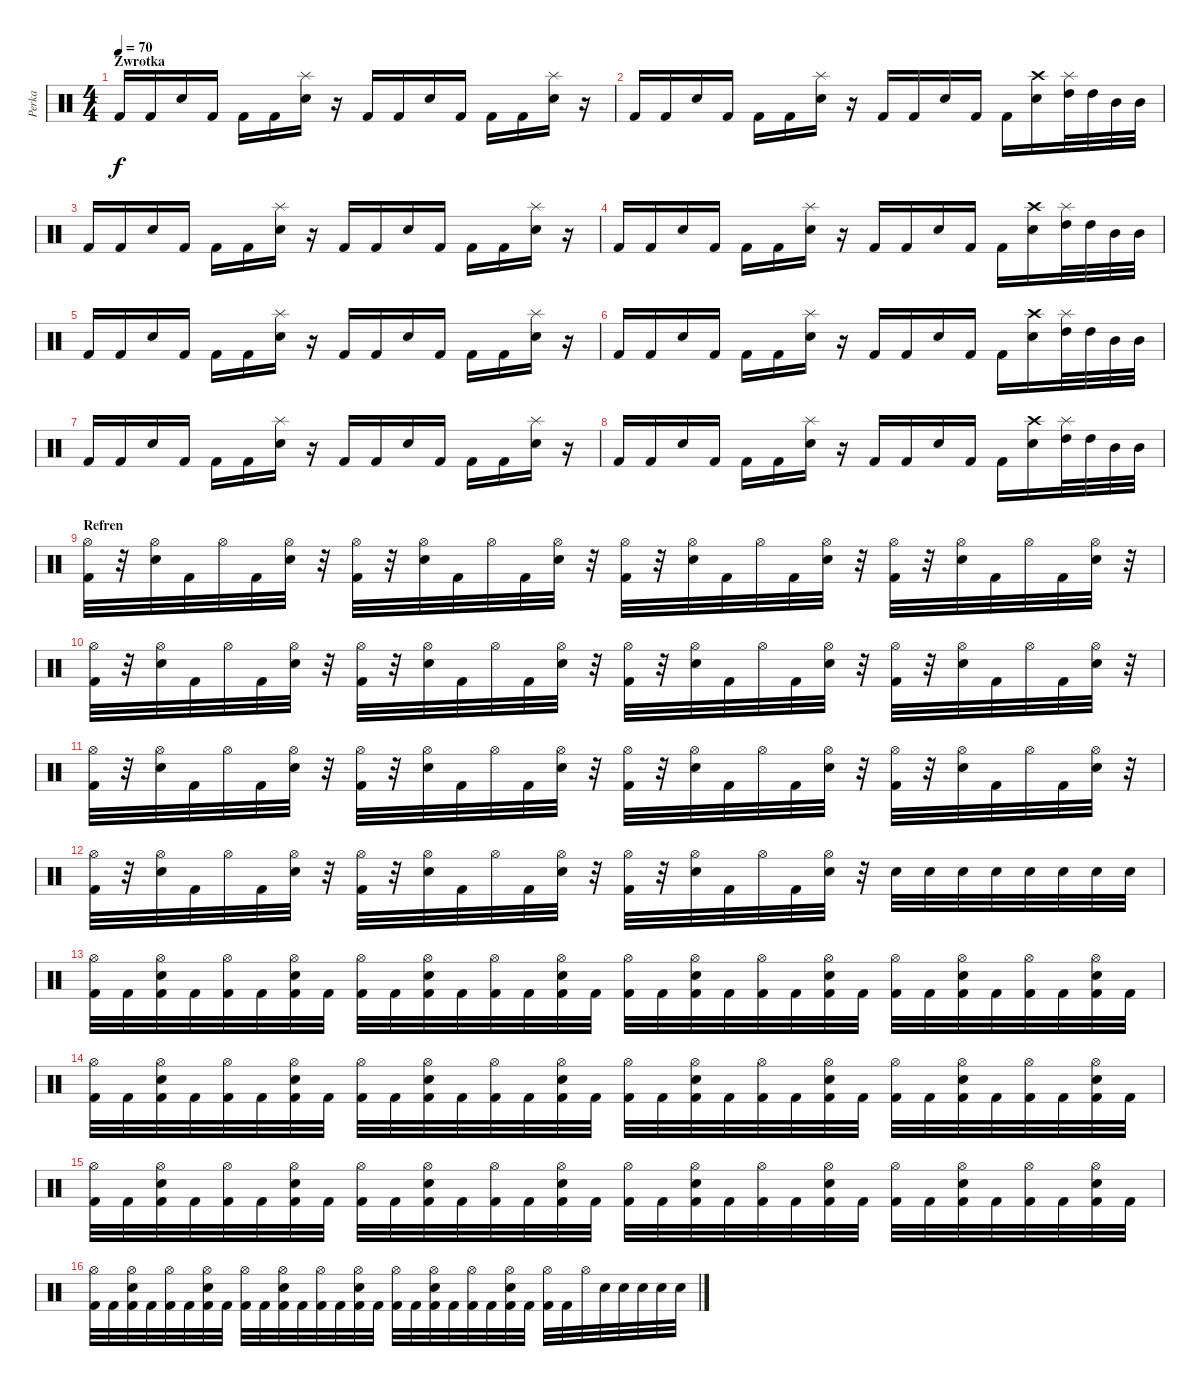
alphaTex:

\track ("Perka" "Perka") {instrument percussion}
\staff {score}
\articulation defaults
\ts (4 4)
\section ("" "Zwrotka")
\tempo 70
\clef neutral
\ks c "Kick (hit) 2".16{dy f} "Kick (hit) 2".16 "Electric Snare (hit)".16 "Kick (hit) 2".16 "Kick (hit) 2".16 "Kick (hit) 2".16
("Splash (hit)" "Electric Snare (hit)").16 r.16 "Kick (hit) 2".16 "Kick (hit) 2".16 "Electric Snare (hit)".16 "Kick (hit) 2".16 "Kick (hit) 2".16 "Kick (hit) 2".16 ("Splash (hit)" "Electric Snare (hit)").16 r.16 |
"Kick (hit) 2".16 "Kick (hit) 2".16 "Electric Snare (hit)".16 "Kick (hit) 2".16 "Kick (hit) 2".16 "Kick (hit) 2".16 ("Splash (hit)" "Electric Snare (hit)").16 r.16 "Kick (hit) 2".16 "Kick (hit) 2".16 "Electric Snare (hit)".16 "Kick (hit) 2".16 "Kick (hit) 2".16 ("Crash high (hit)" "Electric Snare (hit)").16 ("Splash (hit)" "High Tom (hit)").32 "High Tom (hit)".32 "Mid Tom (hit)".32 "Mid Tom (hit)".32 |
"Kick (hit) 2".16 "Kick (hit) 2".16 "Electric Snare (hit)".16 "Kick (hit) 2".16 "Kick (hit) 2".16 "Kick (hit) 2".16 ("Splash (hit)" "Electric Snare (hit)").16 r.16 "Kick (hit) 2".16 "Kick (hit) 2".16 "Electric Snare (hit)".16 "Kick (hit) 2".16 "Kick (hit) 2".16 "Kick (hit) 2".16 ("Splash (hit)" "Electric Snare (hit)").16 r.16 |
"Kick (hit) 2".16 "Kick (hit) 2".16 "Electric Snare (hit)".16 "Kick (hit) 2".16 "Kick (hit) 2".16 "Kick (hit) 2".16 ("Splash (hit)" "Electric Snare (hit)").16 r.16 "Kick (hit) 2".16 "Kick (hit) 2".16 "Electric Snare (hit)".16 "Kick (hit) 2".16 "Kick (hit) 2".16 ("Crash high (hit)" "Electric Snare (hit)").16 ("Splash (hit)" "High Tom (hit)").32 "High Tom (hit)".32 "Mid Tom (hit)".32 "Mid Tom (hit)".32 |
"Kick (hit) 2".16 "Kick (hit) 2".16 "Electric Snare (hit)".16 "Kick (hit) 2".16 "Kick (hit) 2".16 "Kick (hit) 2".16 ("Splash (hit)" "Electric Snare (hit)").16 r.16 "Kick (hit) 2".16 "Kick (hit) 2".16 "Electric Snare (hit)".16 "Kick (hit) 2".16 "Kick (hit) 2".16 "Kick (hit) 2".16 ("Splash (hit)" "Electric Snare (hit)").16 r.16 |
"Kick (hit) 2".16 "Kick (hit) 2".16 "Electric Snare (hit)".16 "Kick (hit) 2".16 "Kick (hit) 2".16 "Kick (hit) 2".16 ("Splash (hit)" "Electric Snare (hit)").16 r.16 "Kick (hit) 2".16 "Kick (hit) 2".16 "Electric Snare (hit)".16 "Kick (hit) 2".16 "Kick (hit) 2".16 ("Crash high (hit)" "Electric Snare (hit)").16 ("Splash (hit)" "High Tom (hit)").32 "High Tom (hit)".32 "Mid Tom (hit)".32 "Mid Tom (hit)".32 |
"Kick (hit) 2".16 "Kick (hit) 2".16 "Electric Snare (hit)".16 "Kick (hit) 2".16 "Kick (hit) 2".16 "Kick (hit) 2".16 ("Splash (hit)" "Electric Snare (hit)").16 r.16 "Kick (hit) 2".16 "Kick (hit) 2".16 "Electric Snare (hit)".16 "Kick (hit) 2".16 "Kick (hit) 2".16 "Kick (hit) 2".16 ("Splash (hit)" "Electric Snare (hit)").16 r.16 |
"Kick (hit) 2".16 "Kick (hit) 2".16 "Electric Snare (hit)".16 "Kick (hit) 2".16 "Kick (hit) 2".16 "Kick (hit) 2".16 ("Splash (hit)" "Electric Snare (hit)").16 r.16 "Kick (hit) 2".16 "Kick (hit) 2".16 "Electric Snare (hit)".16 "Kick (hit) 2".16 "Kick (hit) 2".16 ("Crash high (hit)" "Electric Snare (hit)").16 ("Splash (hit)" "High Tom (hit)").32 "High Tom (hit)".32 "Mid Tom (hit)".32 "Mid Tom (hit)".32 |
\section ("" "Refren")
("Hi-Hat (open)" "Kick (hit) 2").32 r.32 ("Hi-Hat (open)" "Electric Snare (hit)").32 "Kick (hit) 2".32 "Hi-Hat (open)".32 "Kick (hit) 2".32 ("Hi-Hat (open)" "Electric Snare (hit)").32 r.32 ("Hi-Hat (open)" "Kick (hit) 2").32 r.32 ("Hi-Hat (open)" "Electric Snare (hit)").32 "Kick (hit) 2".32 "Hi-Hat (open)".32 "Kick (hit) 2".32 ("Hi-Hat (open)" "Electric Snare (hit)").32 r.32 ("Hi-Hat (open)" "Kick (hit) 2").32 r.32 ("Hi-Hat (open)" "Electric Snare (hit)").32 "Kick (hit) 2".32 "Hi-Hat (open)".32 "Kick (hit) 2".32 ("Hi-Hat (open)" "Electric Snare (hit)").32 r.32 ("Hi-Hat (open)" "Kick (hit) 2").32 r.32 ("Hi-Hat (open)" "Electric Snare (hit)").32 "Kick (hit) 2".32 "Hi-Hat (open)".32 "Kick (hit) 2".32 ("Hi-Hat (open)" "Electric Snare (hit)").32 r.32 |
("Hi-Hat (open)" "Kick (hit) 2").32 r.32 ("Hi-Hat (open)" "Electric Snare (hit)").32 "Kick (hit) 2".32 "Hi-Hat (open)".32 "Kick (hit) 2".32 ("Hi-Hat (open)" "Electric Snare (hit)").32 r.32 ("Hi-Hat (open)" "Kick (hit) 2").32 r.32 ("Hi-Hat (open)" "Electric Snare (hit)").32 "Kick (hit) 2".32 "Hi-Hat (open)".32 "Kick (hit) 2".32 ("Hi-Hat (open)" "Electric Snare (hit)").32 r.32 ("Hi-Hat (open)" "Kick (hit) 2").32 r.32 ("Hi-Hat (open)" "Electric Snare (hit)").32 "Kick (hit) 2".32 "Hi-Hat (open)".32 "Kick (hit) 2".32 ("Hi-Hat (open)" "Electric Snare (hit)").32 r.32 ("Hi-Hat (open)" "Kick (hit) 2").32 r.32 ("Hi-Hat (open)" "Electric Snare (hit)").32 "Kick (hit) 2".32 "Hi-Hat (open)".32 "Kick (hit) 2".32 ("Hi-Hat (open)" "Electric Snare (hit)").32 r.32 |
("Hi-Hat (open)" "Kick (hit) 2").32 r.32 ("Hi-Hat (open)" "Electric Snare (hit)").32 "Kick (hit) 2".32 "Hi-Hat (open)".32 "Kick (hit) 2".32 ("Hi-Hat (open)" "Electric Snare (hit)").32 r.32 ("Hi-Hat (open)" "Kick (hit) 2").32 r.32 ("Hi-Hat (open)" "Electric Snare (hit)").32 "Kick (hit) 2".32 "Hi-Hat (open)".32 "Kick (hit) 2".32 ("Hi-Hat (open)" "Electric Snare (hit)").32 r.32 ("Hi-Hat (open)" "Kick (hit) 2").32 r.32 ("Hi-Hat (open)" "Electric Snare (hit)").32 "Kick (hit) 2".32 "Hi-Hat (open)".32 "Kick (hit) 2".32 ("Hi-Hat (open)" "Electric Snare (hit)").32 r.32 ("Hi-Hat (open)" "Kick (hit) 2").32 r.32 ("Hi-Hat (open)" "Electric Snare (hit)").32 "Kick (hit) 2".32 "Hi-Hat (open)".32 "Kick (hit) 2".32 ("Hi-Hat (open)" "Electric Snare (hit)").32 r.32 |
("Hi-Hat (open)" "Kick (hit) 2").32 r.32 ("Hi-Hat (open)" "Electric Snare (hit)").32 "Kick (hit) 2".32 "Hi-Hat (open)".32 "Kick (hit) 2".32 ("Hi-Hat (open)" "Electric Snare (hit)").32 r.32 ("Hi-Hat (open)" "Kick (hit) 2").32 r.32 ("Hi-Hat (open)" "Electric Snare (hit)").32 "Kick (hit) 2".32 "Hi-Hat (open)".32 "Kick (hit) 2".32 ("Hi-Hat (open)" "Electric Snare (hit)").32 r.32 ("Hi-Hat (open)" "Kick (hit) 2").32 r.32 ("Hi-Hat (open)" "Electric Snare (hit)").32 "Kick (hit) 2".32 "Hi-Hat (open)".32 "Kick (hit) 2".32 ("Hi-Hat (open)" "Electric Snare (hit)").32 r.32 "Electric Snare (hit)".32 "Electric Snare (hit)".32 "Electric Snare (hit)".32 "Electric Snare (hit)".32 "Electric Snare (hit)".32 "Electric Snare (hit)".32 "Electric Snare (hit)".32 "Electric Snare (hit)".32 |
("Hi-Hat (open)" "Kick (hit) 2").32 "Kick (hit) 2".32 ("Hi-Hat (open)" "Electric Snare (hit)" "Kick (hit) 2").32 "Kick (hit) 2".32 ("Hi-Hat (open)" "Kick (hit) 2").32 "Kick (hit) 2".32 ("Hi-Hat (open)" "Electric Snare (hit)" "Kick (hit) 2").32 "Kick (hit) 2".32 ("Hi-Hat (open)" "Kick (hit) 2").32 "Kick (hit) 2".32 ("Hi-Hat (open)" "Electric Snare (hit)" "Kick (hit) 2").32 "Kick (hit) 2".32 ("Hi-Hat (open)" "Kick (hit) 2").32 "Kick (hit) 2".32 ("Hi-Hat (open)" "Electric Snare (hit)" "Kick (hit) 2").32 "Kick (hit) 2".32 ("Hi-Hat (open)" "Kick (hit) 2").32 "Kick (hit) 2".32 ("Hi-Hat (open)" "Electric Snare (hit)" "Kick (hit) 2").32 "Kick (hit) 2".32 ("Hi-Hat (open)" "Kick (hit) 2").32 "Kick (hit) 2".32 ("Hi-Hat (open)" "Electric Snare (hit)" "Kick (hit) 2").32 "Kick (hit) 2".32 ("Hi-Hat (open)" "Kick (hit) 2").32 "Kick (hit) 2".32 ("Hi-Hat (open)" "Electric Snare (hit)" "Kick (hit) 2").32 "Kick (hit) 2".32 ("Hi-Hat (open)" "Kick (hit) 2").32 "Kick (hit) 2".32 ("Hi-Hat (open)" "Electric Snare (hit)" "Kick (hit) 2").32 "Kick (hit) 2".32 |
("Hi-Hat (open)" "Kick (hit) 2").32 "Kick (hit) 2".32 ("Hi-Hat (open)" "Electric Snare (hit)" "Kick (hit) 2").32 "Kick (hit) 2".32 ("Hi-Hat (open)" "Kick (hit) 2").32 "Kick (hit) 2".32 ("Hi-Hat (open)" "Electric Snare (hit)" "Kick (hit) 2").32 "Kick (hit) 2".32 ("Hi-Hat (open)" "Kick (hit) 2").32 "Kick (hit) 2".32 ("Hi-Hat (open)" "Electric Snare (hit)" "Kick (hit) 2").32 "Kick (hit) 2".32 ("Hi-Hat (open)" "Kick (hit) 2").32 "Kick (hit) 2".32 ("Hi-Hat (open)" "Electric Snare (hit)" "Kick (hit) 2").32 "Kick (hit) 2".32 ("Hi-Hat (open)" "Kick (hit) 2").32 "Kick (hit) 2".32 ("Hi-Hat (open)" "Electric Snare (hit)" "Kick (hit) 2").32 "Kick (hit) 2".32 ("Hi-Hat (open)" "Kick (hit) 2").32 "Kick (hit) 2".32 ("Hi-Hat (open)" "Electric Snare (hit)" "Kick (hit) 2").32 "Kick (hit) 2".32 ("Hi-Hat (open)" "Kick (hit) 2").32 "Kick (hit) 2".32 ("Hi-Hat (open)" "Electric Snare (hit)" "Kick (hit) 2").32 "Kick (hit) 2".32 ("Hi-Hat (open)" "Kick (hit) 2").32 "Kick (hit) 2".32 ("Hi-Hat (open)" "Electric Snare (hit)" "Kick (hit) 2").32 "Kick (hit) 2".32 |
("Hi-Hat (open)" "Kick (hit) 2").32 "Kick (hit) 2".32 ("Hi-Hat (open)" "Electric Snare (hit)" "Kick (hit) 2").32 "Kick (hit) 2".32 ("Hi-Hat (open)" "Kick (hit) 2").32 "Kick (hit) 2".32 ("Hi-Hat (open)" "Electric Snare (hit)" "Kick (hit) 2").32 "Kick (hit) 2".32 ("Hi-Hat (open)" "Kick (hit) 2").32 "Kick (hit) 2".32 ("Hi-Hat (open)" "Electric Snare (hit)" "Kick (hit) 2").32 "Kick (hit) 2".32 ("Hi-Hat (open)" "Kick (hit) 2").32 "Kick (hit) 2".32 ("Hi-Hat (open)" "Electric Snare (hit)" "Kick (hit) 2").32 "Kick (hit) 2".32 ("Hi-Hat (open)" "Kick (hit) 2").32 "Kick (hit) 2".32 ("Hi-Hat (open)" "Electric Snare (hit)" "Kick (hit) 2").32 "Kick (hit) 2".32 ("Hi-Hat (open)" "Kick (hit) 2").32 "Kick (hit) 2".32 ("Hi-Hat (open)" "Electric Snare (hit)" "Kick (hit) 2").32 "Kick (hit) 2".32 ("Hi-Hat (open)" "Kick (hit) 2").32 "Kick (hit) 2".32 ("Hi-Hat (open)" "Electric Snare (hit)" "Kick (hit) 2").32 "Kick (hit) 2".32 ("Hi-Hat (open)" "Kick (hit) 2").32 "Kick (hit) 2".32 ("Hi-Hat (open)" "Electric Snare (hit)" "Kick (hit) 2").32 "Kick (hit) 2".32 |
("Hi-Hat (open)" "Kick (hit) 2").32 "Kick (hit) 2".32 ("Hi-Hat (open)" "Electric Snare (hit)" "Kick (hit) 2").32 "Kick (hit) 2".32 ("Hi-Hat (open)" "Kick (hit) 2").32 "Kick (hit) 2".32 ("Hi-Hat (open)" "Electric Snare (hit)" "Kick (hit) 2").32 "Kick (hit) 2".32 ("Hi-Hat (open)" "Kick (hit) 2").32 "Kick (hit) 2".32 ("Hi-Hat (open)" "Electric Snare (hit)" "Kick (hit) 2").32 "Kick (hit) 2".32 ("Hi-Hat (open)" "Kick (hit) 2").32 "Kick (hit) 2".32 ("Hi-Hat (open)" "Electric Snare (hit)" "Kick (hit) 2").32 "Kick (hit) 2".32 ("Hi-Hat (open)" "Kick (hit) 2").32 "Kick (hit) 2".32 ("Hi-Hat (open)" "Electric Snare (hit)" "Kick (hit) 2").32 "Kick (hit) 2".32 ("Hi-Hat (open)" "Kick (hit) 2").32 "Kick (hit) 2".32 ("Hi-Hat (open)" "Electric Snare (hit)" "Kick (hit) 2").32 "Kick (hit) 2".32 ("Hi-Hat (open)" "Kick (hit) 2").32 "Kick (hit) 2".32 "Hi-Hat (open)".32 "Electric Snare (hit)".32 "Electric Snare (hit)".32 "Electric Snare (hit)".32 "Electric Snare (hit)".32 "Electric Snare (hit)".32
